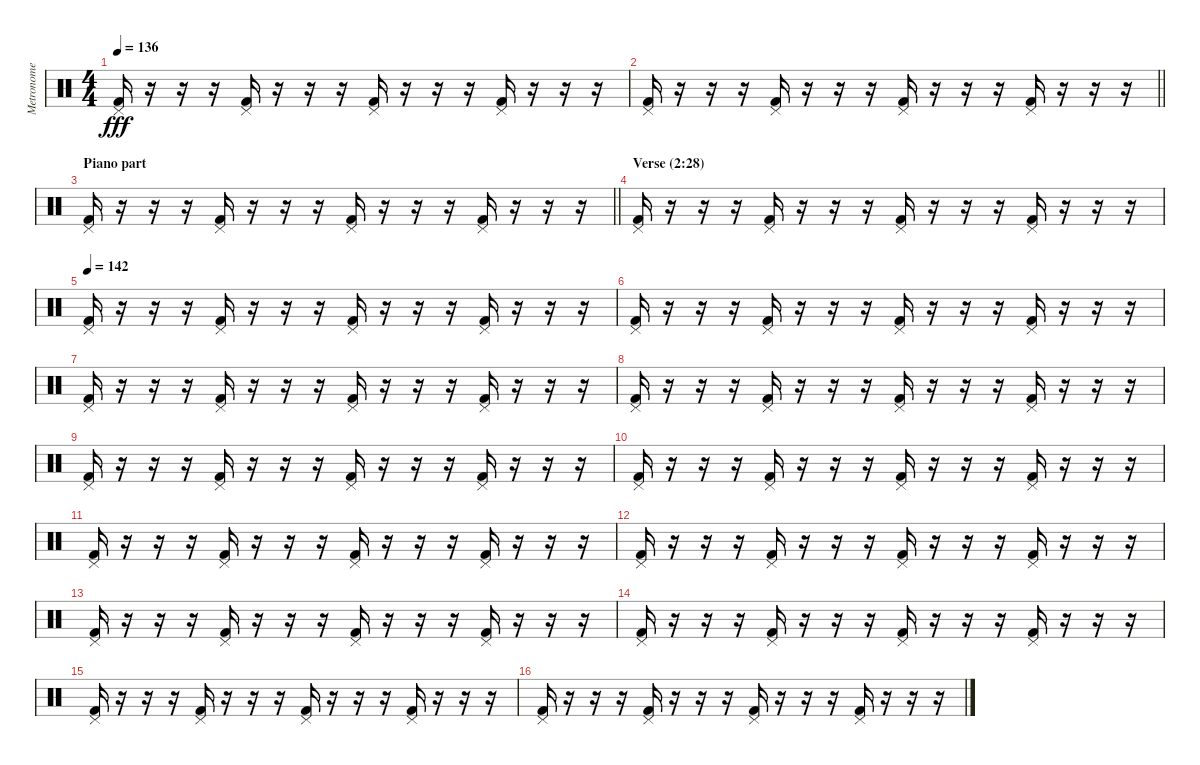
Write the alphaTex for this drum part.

\track ("Metronome" "Metronome") {mute instrument percussion}
\staff {score}
\articulation defaults
\ts (4 4)
\tempo 136
\clef neutral
\ks c
("Pedal Hi-Hat (hit)" "Kick (hit) 2").16{dy fff} r.16 r.16 r.16 ("Pedal Hi-Hat (hit)" "Kick (hit) 2").16 r.16 r.16 r.16 ("Pedal Hi-Hat (hit)" "Kick (hit) 2").16 r.16 r.16 r.16 ("Pedal Hi-Hat (hit)" "Kick (hit) 2").16 r.16 r.16 r.16 |
\barLineRight lightlight
("Pedal Hi-Hat (hit)" "Kick (hit) 2").16 r.16 r.16 r.16 ("Pedal Hi-Hat (hit)" "Kick (hit) 2").16 r.16 r.16 r.16 ("Pedal Hi-Hat (hit)" "Kick (hit) 2").16 r.16 r.16 r.16 ("Pedal Hi-Hat (hit)" "Kick (hit) 2").16 r.16 r.16 r.16 |
\section ("" "Piano part")
\barLineRight lightlight
("Pedal Hi-Hat (hit)" "Kick (hit) 2").16 r.16 r.16 r.16 ("Pedal Hi-Hat (hit)" "Kick (hit) 2").16 r.16 r.16 r.16 ("Pedal Hi-Hat (hit)" "Kick (hit) 2").16 r.16 r.16 r.16 ("Pedal Hi-Hat (hit)" "Kick (hit) 2").16 r.16 r.16 r.16 |
\section ("" "Verse (2:28)")
("Pedal Hi-Hat (hit)" "Kick (hit) 2").16 r.16 r.16 r.16 ("Pedal Hi-Hat (hit)" "Kick (hit) 2").16 r.16 r.16 r.16 ("Pedal Hi-Hat (hit)" "Kick (hit) 2").16 r.16 r.16 r.16 ("Pedal Hi-Hat (hit)" "Kick (hit) 2").16 r.16 r.16 r.16 |
\tempo 142
("Pedal Hi-Hat (hit)" "Kick (hit) 2").16 r.16 r.16 r.16 ("Pedal Hi-Hat (hit)" "Kick (hit) 2").16 r.16 r.16 r.16 ("Pedal Hi-Hat (hit)" "Kick (hit) 2").16 r.16 r.16 r.16 ("Pedal Hi-Hat (hit)" "Kick (hit) 2").16 r.16 r.16 r.16 |
("Pedal Hi-Hat (hit)" "Kick (hit) 2").16 r.16 r.16 r.16 ("Pedal Hi-Hat (hit)" "Kick (hit) 2").16 r.16 r.16 r.16 ("Pedal Hi-Hat (hit)" "Kick (hit) 2").16 r.16 r.16 r.16 ("Pedal Hi-Hat (hit)" "Kick (hit) 2").16 r.16 r.16 r.16 |
("Pedal Hi-Hat (hit)" "Kick (hit) 2").16 r.16 r.16 r.16 ("Pedal Hi-Hat (hit)" "Kick (hit) 2").16 r.16 r.16 r.16 ("Pedal Hi-Hat (hit)" "Kick (hit) 2").16 r.16 r.16 r.16 ("Pedal Hi-Hat (hit)" "Kick (hit) 2").16 r.16 r.16 r.16 |
("Pedal Hi-Hat (hit)" "Kick (hit) 2").16 r.16 r.16 r.16 ("Pedal Hi-Hat (hit)" "Kick (hit) 2").16 r.16 r.16 r.16 ("Pedal Hi-Hat (hit)" "Kick (hit) 2").16 r.16 r.16 r.16 ("Pedal Hi-Hat (hit)" "Kick (hit) 2").16 r.16 r.16 r.16 |
("Pedal Hi-Hat (hit)" "Kick (hit) 2").16 r.16 r.16 r.16 ("Pedal Hi-Hat (hit)" "Kick (hit) 2").16 r.16 r.16 r.16 ("Pedal Hi-Hat (hit)" "Kick (hit) 2").16 r.16 r.16 r.16 ("Pedal Hi-Hat (hit)" "Kick (hit) 2").16 r.16 r.16 r.16 |
("Pedal Hi-Hat (hit)" "Kick (hit) 2").16 r.16 r.16 r.16 ("Pedal Hi-Hat (hit)" "Kick (hit) 2").16 r.16 r.16 r.16 ("Pedal Hi-Hat (hit)" "Kick (hit) 2").16 r.16 r.16 r.16 ("Pedal Hi-Hat (hit)" "Kick (hit) 2").16 r.16 r.16 r.16 |
("Pedal Hi-Hat (hit)" "Kick (hit) 2").16 r.16 r.16 r.16 ("Pedal Hi-Hat (hit)" "Kick (hit) 2").16 r.16 r.16 r.16 ("Pedal Hi-Hat (hit)" "Kick (hit) 2").16 r.16 r.16 r.16 ("Pedal Hi-Hat (hit)" "Kick (hit) 2").16 r.16 r.16 r.16 |
("Pedal Hi-Hat (hit)" "Kick (hit) 2").16 r.16 r.16 r.16 ("Pedal Hi-Hat (hit)" "Kick (hit) 2").16 r.16 r.16 r.16 ("Pedal Hi-Hat (hit)" "Kick (hit) 2").16 r.16 r.16 r.16 ("Pedal Hi-Hat (hit)" "Kick (hit) 2").16 r.16 r.16 r.16 |
("Pedal Hi-Hat (hit)" "Kick (hit) 2").16 r.16 r.16 r.16 ("Pedal Hi-Hat (hit)" "Kick (hit) 2").16 r.16 r.16 r.16 ("Pedal Hi-Hat (hit)" "Kick (hit) 2").16 r.16 r.16 r.16 ("Pedal Hi-Hat (hit)" "Kick (hit) 2").16 r.16 r.16 r.16 |
("Pedal Hi-Hat (hit)" "Kick (hit) 2").16 r.16 r.16 r.16 ("Pedal Hi-Hat (hit)" "Kick (hit) 2").16 r.16 r.16 r.16 ("Pedal Hi-Hat (hit)" "Kick (hit) 2").16 r.16 r.16 r.16 ("Pedal Hi-Hat (hit)" "Kick (hit) 2").16 r.16 r.16 r.16 |
("Pedal Hi-Hat (hit)" "Kick (hit) 2").16 r.16 r.16 r.16 ("Pedal Hi-Hat (hit)" "Kick (hit) 2").16 r.16 r.16 r.16 ("Pedal Hi-Hat (hit)" "Kick (hit) 2").16 r.16 r.16 r.16 ("Pedal Hi-Hat (hit)" "Kick (hit) 2").16 r.16 r.16 r.16 |
("Pedal Hi-Hat (hit)" "Kick (hit) 2").16 r.16 r.16 r.16 ("Pedal Hi-Hat (hit)" "Kick (hit) 2").16 r.16 r.16 r.16 ("Pedal Hi-Hat (hit)" "Kick (hit) 2").16 r.16 r.16 r.16 ("Pedal Hi-Hat (hit)" "Kick (hit) 2").16 r.16 r.16 r.16
